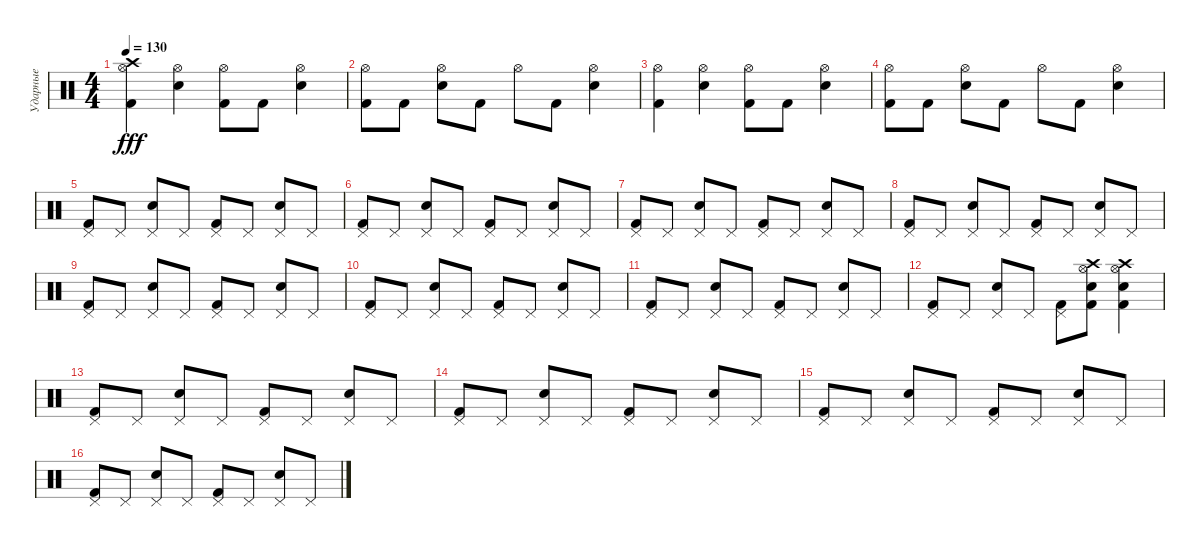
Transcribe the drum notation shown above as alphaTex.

\track ("Ударные" "Ударные") {instrument percussion}
\staff {score}
\articulation defaults
\ts (4 4)
\tempo 130
\clef neutral
\ks c
("Hi-Hat (open)" "Crash high (hit)" "Kick (hit) 2").4{dy fff} ("Hi-Hat (open)" "Snare (hit) 2").4 ("Hi-Hat (open)" "Kick (hit) 2").8 "Kick (hit) 2".8 ("Hi-Hat (open)" "Snare (hit) 2").4 |
("Hi-Hat (open)" "Kick (hit) 2").8 "Kick (hit) 2".8 ("Hi-Hat (open)" "Snare (hit) 2").8 "Kick (hit) 2".8 "Hi-Hat (open)".8 "Kick (hit) 2".8 ("Hi-Hat (open)" "Snare (hit) 2").4 |
("Hi-Hat (open)" "Kick (hit) 2").4 ("Hi-Hat (open)" "Snare (hit) 2").4 ("Hi-Hat (open)" "Kick (hit) 2").8 "Kick (hit) 2".8 ("Hi-Hat (open)" "Snare (hit) 2").4 |
("Hi-Hat (open)" "Kick (hit) 2").8 "Kick (hit) 2".8 ("Hi-Hat (open)" "Snare (hit) 2").8 "Kick (hit) 2".8 "Hi-Hat (open)".8 "Kick (hit) 2".8 ("Hi-Hat (open)" "Snare (hit) 2").4 |
("Pedal Hi-Hat (hit)" "Kick (hit) 2").8 "Pedal Hi-Hat (hit)".8 ("Pedal Hi-Hat (hit)" "Snare (hit) 2").8 "Pedal Hi-Hat (hit)".8 ("Pedal Hi-Hat (hit)" "Kick (hit) 2").8 "Pedal Hi-Hat (hit)".8 ("Pedal Hi-Hat (hit)" "Snare (hit) 2").8 "Pedal Hi-Hat (hit)".8 |
("Pedal Hi-Hat (hit)" "Kick (hit) 2").8 "Pedal Hi-Hat (hit)".8 ("Pedal Hi-Hat (hit)" "Snare (hit) 2").8 "Pedal Hi-Hat (hit)".8 ("Pedal Hi-Hat (hit)" "Kick (hit) 2").8 "Pedal Hi-Hat (hit)".8 ("Pedal Hi-Hat (hit)" "Snare (hit) 2").8 "Pedal Hi-Hat (hit)".8 |
("Pedal Hi-Hat (hit)" "Kick (hit) 2").8 "Pedal Hi-Hat (hit)".8 ("Pedal Hi-Hat (hit)" "Snare (hit) 2").8 "Pedal Hi-Hat (hit)".8 ("Pedal Hi-Hat (hit)" "Kick (hit) 2").8 "Pedal Hi-Hat (hit)".8 ("Pedal Hi-Hat (hit)" "Snare (hit) 2").8 "Pedal Hi-Hat (hit)".8 |
("Pedal Hi-Hat (hit)" "Kick (hit) 2").8 "Pedal Hi-Hat (hit)".8 ("Pedal Hi-Hat (hit)" "Snare (hit) 2").8 "Pedal Hi-Hat (hit)".8 ("Pedal Hi-Hat (hit)" "Kick (hit) 2").8 "Pedal Hi-Hat (hit)".8 ("Pedal Hi-Hat (hit)" "Snare (hit) 2").8 "Pedal Hi-Hat (hit)".8 |
("Pedal Hi-Hat (hit)" "Kick (hit) 2").8 "Pedal Hi-Hat (hit)".8 ("Pedal Hi-Hat (hit)" "Snare (hit) 2").8 "Pedal Hi-Hat (hit)".8 ("Pedal Hi-Hat (hit)" "Kick (hit) 2").8 "Pedal Hi-Hat (hit)".8 ("Pedal Hi-Hat (hit)" "Snare (hit) 2").8 "Pedal Hi-Hat (hit)".8 |
("Pedal Hi-Hat (hit)" "Kick (hit) 2").8 "Pedal Hi-Hat (hit)".8 ("Pedal Hi-Hat (hit)" "Snare (hit) 2").8 "Pedal Hi-Hat (hit)".8 ("Pedal Hi-Hat (hit)" "Kick (hit) 2").8 "Pedal Hi-Hat (hit)".8 ("Pedal Hi-Hat (hit)" "Snare (hit) 2").8 "Pedal Hi-Hat (hit)".8 |
("Pedal Hi-Hat (hit)" "Kick (hit) 2").8 "Pedal Hi-Hat (hit)".8 ("Pedal Hi-Hat (hit)" "Snare (hit) 2").8 "Pedal Hi-Hat (hit)".8 ("Pedal Hi-Hat (hit)" "Kick (hit) 2").8 "Pedal Hi-Hat (hit)".8 ("Pedal Hi-Hat (hit)" "Snare (hit) 2").8 "Pedal Hi-Hat (hit)".8 |
("Pedal Hi-Hat (hit)" "Kick (hit) 2").8 "Pedal Hi-Hat (hit)".8 ("Pedal Hi-Hat (hit)" "Snare (hit) 2").8 "Pedal Hi-Hat (hit)".8 ("Pedal Hi-Hat (hit)" "Kick (hit) 2").8 ("Hi-Hat (open)" "Crash high (hit)" "Snare (hit) 2" "Kick (hit) 2").8 ("Hi-Hat (open)" "Crash high (hit)" "Snare (hit) 2" "Kick (hit) 2").4 |
("Pedal Hi-Hat (hit)" "Kick (hit) 2").8 "Pedal Hi-Hat (hit)".8 ("Pedal Hi-Hat (hit)" "Snare (hit) 2").8 "Pedal Hi-Hat (hit)".8 ("Pedal Hi-Hat (hit)" "Kick (hit) 2").8 "Pedal Hi-Hat (hit)".8 ("Pedal Hi-Hat (hit)" "Snare (hit) 2").8 "Pedal Hi-Hat (hit)".8 |
("Pedal Hi-Hat (hit)" "Kick (hit) 2").8 "Pedal Hi-Hat (hit)".8 ("Pedal Hi-Hat (hit)" "Snare (hit) 2").8 "Pedal Hi-Hat (hit)".8 ("Pedal Hi-Hat (hit)" "Kick (hit) 2").8 "Pedal Hi-Hat (hit)".8 ("Pedal Hi-Hat (hit)" "Snare (hit) 2").8 "Pedal Hi-Hat (hit)".8 |
("Pedal Hi-Hat (hit)" "Kick (hit) 2").8 "Pedal Hi-Hat (hit)".8 ("Pedal Hi-Hat (hit)" "Snare (hit) 2").8 "Pedal Hi-Hat (hit)".8 ("Pedal Hi-Hat (hit)" "Kick (hit) 2").8 "Pedal Hi-Hat (hit)".8 ("Pedal Hi-Hat (hit)" "Snare (hit) 2").8 "Pedal Hi-Hat (hit)".8 |
("Pedal Hi-Hat (hit)" "Kick (hit) 2").8 "Pedal Hi-Hat (hit)".8 ("Pedal Hi-Hat (hit)" "Snare (hit) 2").8 "Pedal Hi-Hat (hit)".8 ("Pedal Hi-Hat (hit)" "Kick (hit) 2").8 "Pedal Hi-Hat (hit)".8 ("Pedal Hi-Hat (hit)" "Snare (hit) 2").8 "Pedal Hi-Hat (hit)".8
